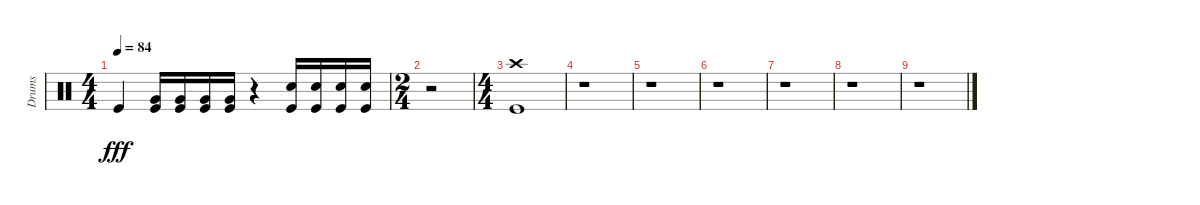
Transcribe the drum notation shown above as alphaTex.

\track ("Drums" "Drums") {instrument percussion}
\staff {score}
\articulation defaults
\ts (4 4)
\tempo 84
\clef neutral
\ks c "Kick (hit)".4{dy fff}
("Very Low Tom (hit)" "Kick (hit)").16 ("Very Low Tom (hit)" "Kick (hit)").16 ("Very Low Tom (hit)" "Kick (hit)").16 ("Very Low Tom (hit)" "Kick (hit)").16 r.4 ("Snare (hit) 2" "Kick (hit)").16 ("Snare (hit) 2" "Kick (hit)").16 ("Snare (hit) 2" "Kick (hit)").16 ("Snare (hit) 2" "Kick (hit)").16 |
\ts (2 4)
r.2 |
\ts (4 4)
("Crash high (hit)" "Kick (hit)").1 |
r.1 |
r.1 |
r.1 |
r.1 |
r.1 |
r.1
